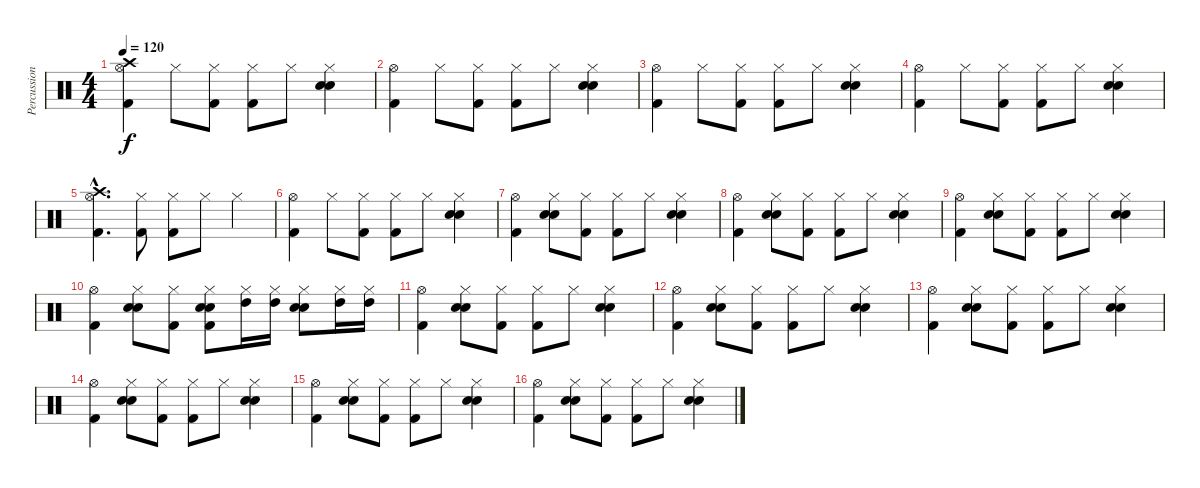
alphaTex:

\track ("Percussions" "Percussion") {instrument percussion}
\staff {score}
\articulation defaults
\ts (4 4)
\tempo 120
\clef neutral
\ks c
("Hi-Hat (open)" "Crash high (hit)" "Kick (hit) 2").4{dy f} "Hi-Hat (closed)".8 ("Hi-Hat (closed)" "Kick (hit) 2").8 ("Hi-Hat (closed)" "Kick (hit) 2").8 "Hi-Hat (closed)".8 ("Hi-Hat (closed)" "Electric Snare (hit)" "Snare (hit) 2").4 |
("Hi-Hat (open)" "Kick (hit) 2").4 "Hi-Hat (closed)".8 ("Hi-Hat (closed)" "Kick (hit) 2").8 ("Hi-Hat (closed)" "Kick (hit) 2").8 "Hi-Hat (closed)".8 ("Hi-Hat (closed)" "Electric Snare (hit)" "Snare (hit) 2").4 |
("Hi-Hat (open)" "Kick (hit) 2").4 "Hi-Hat (closed)".8 ("Hi-Hat (closed)" "Kick (hit) 2").8 ("Hi-Hat (closed)" "Kick (hit) 2").8 "Hi-Hat (closed)".8 ("Hi-Hat (closed)" "Electric Snare (hit)" "Snare (hit) 2").4 |
("Hi-Hat (open)" "Kick (hit) 2").4 "Hi-Hat (closed)".8 ("Hi-Hat (closed)" "Kick (hit) 2").8 ("Hi-Hat (closed)" "Kick (hit) 2").8 "Hi-Hat (closed)".8 ("Hi-Hat (closed)" "Electric Snare (hit)" "Snare (hit) 2").4 |
("Hi-Hat (open)"{hac} "Crash high (hit)"{hac} "Kick (hit) 2"{hac}).4{d} ("Hi-Hat (closed)" "Kick (hit) 2").8 ("Hi-Hat (closed)" "Kick (hit) 2").8 "Hi-Hat (closed)".8 "Hi-Hat (closed)".4 |
("Hi-Hat (open)" "Kick (hit) 2").4 "Hi-Hat (closed)".8 ("Hi-Hat (closed)" "Kick (hit) 2").8 ("Hi-Hat (closed)" "Kick (hit) 2").8 "Hi-Hat (closed)".8 ("Hi-Hat (closed)" "Electric Snare (hit)" "Snare (hit) 2").4 |
("Hi-Hat (open)" "Kick (hit) 2").4 ("Hi-Hat (closed)" "Electric Snare (hit)" "Snare (hit) 2").8 ("Hi-Hat (closed)" "Kick (hit) 2").8 ("Hi-Hat (closed)" "Kick (hit) 2").8 "Hi-Hat (closed)".8 ("Hi-Hat (closed)" "Electric Snare (hit)" "Snare (hit) 2").4 |
("Hi-Hat (open)" "Kick (hit) 2").4 ("Hi-Hat (closed)" "Electric Snare (hit)" "Snare (hit) 2").8 ("Hi-Hat (closed)" "Kick (hit) 2").8 ("Hi-Hat (closed)" "Kick (hit) 2").8 "Hi-Hat (closed)".8 ("Hi-Hat (closed)" "Electric Snare (hit)" "Snare (hit) 2").4 |
("Hi-Hat (open)" "Kick (hit) 2").4 ("Hi-Hat (closed)" "Electric Snare (hit)" "Snare (hit) 2").8 ("Hi-Hat (closed)" "Kick (hit) 2").8 ("Hi-Hat (closed)" "Kick (hit) 2").8 "Hi-Hat (closed)".8 ("Hi-Hat (closed)" "Electric Snare (hit)" "Snare (hit) 2").4 |
("Hi-Hat (open)" "Kick (hit) 2").4 ("Hi-Hat (closed)" "Electric Snare (hit)" "Snare (hit) 2").8 ("Hi-Hat (closed)" "Kick (hit) 2").8 ("Hi-Hat (closed)" "Electric Snare (hit)" "Snare (hit) 2" "Kick (hit) 2").8 ("Hi-Hat (closed)" "High Tom (hit)").16 ("Hi-Hat (closed)" "High Tom (hit)").16 ("Hi-Hat (closed)" "Electric Snare (hit)" "Snare (hit) 2").8 ("Hi-Hat (closed)" "High Tom (hit)").16 ("Hi-Hat (closed)" "High Tom (hit)").16 |
("Hi-Hat (open)" "Kick (hit) 2").4 ("Hi-Hat (closed)" "Electric Snare (hit)" "Snare (hit) 2").8 ("Hi-Hat (closed)" "Kick (hit) 2").8 ("Hi-Hat (closed)" "Kick (hit) 2").8 "Hi-Hat (closed)".8 ("Hi-Hat (closed)" "Electric Snare (hit)" "Snare (hit) 2").4 |
("Hi-Hat (open)" "Kick (hit) 2").4 ("Hi-Hat (closed)" "Electric Snare (hit)" "Snare (hit) 2").8 ("Hi-Hat (closed)" "Kick (hit) 2").8 ("Hi-Hat (closed)" "Kick (hit) 2").8 "Hi-Hat (closed)".8 ("Hi-Hat (closed)" "Electric Snare (hit)" "Snare (hit) 2").4 |
("Hi-Hat (open)" "Kick (hit) 2").4 ("Hi-Hat (closed)" "Electric Snare (hit)" "Snare (hit) 2").8 ("Hi-Hat (closed)" "Kick (hit) 2").8 ("Hi-Hat (closed)" "Kick (hit) 2").8 "Hi-Hat (closed)".8 ("Hi-Hat (closed)" "Electric Snare (hit)" "Snare (hit) 2").4 |
("Hi-Hat (open)" "Kick (hit) 2").4 ("Hi-Hat (closed)" "Electric Snare (hit)" "Snare (hit) 2").8 ("Hi-Hat (closed)" "Kick (hit) 2").8 ("Hi-Hat (closed)" "Kick (hit) 2").8 "Hi-Hat (closed)".8 ("Hi-Hat (closed)" "Electric Snare (hit)" "Snare (hit) 2").4 |
("Hi-Hat (open)" "Kick (hit) 2").4 ("Hi-Hat (closed)" "Electric Snare (hit)" "Snare (hit) 2").8 ("Hi-Hat (closed)" "Kick (hit) 2").8 ("Hi-Hat (closed)" "Kick (hit) 2").8 "Hi-Hat (closed)".8 ("Hi-Hat (closed)" "Electric Snare (hit)" "Snare (hit) 2").4 |
("Hi-Hat (open)" "Kick (hit) 2").4 ("Hi-Hat (closed)" "Electric Snare (hit)" "Snare (hit) 2").8 ("Hi-Hat (closed)" "Kick (hit) 2").8 ("Hi-Hat (closed)" "Kick (hit) 2").8 "Hi-Hat (closed)".8 ("Hi-Hat (closed)" "Electric Snare (hit)" "Snare (hit) 2").4
